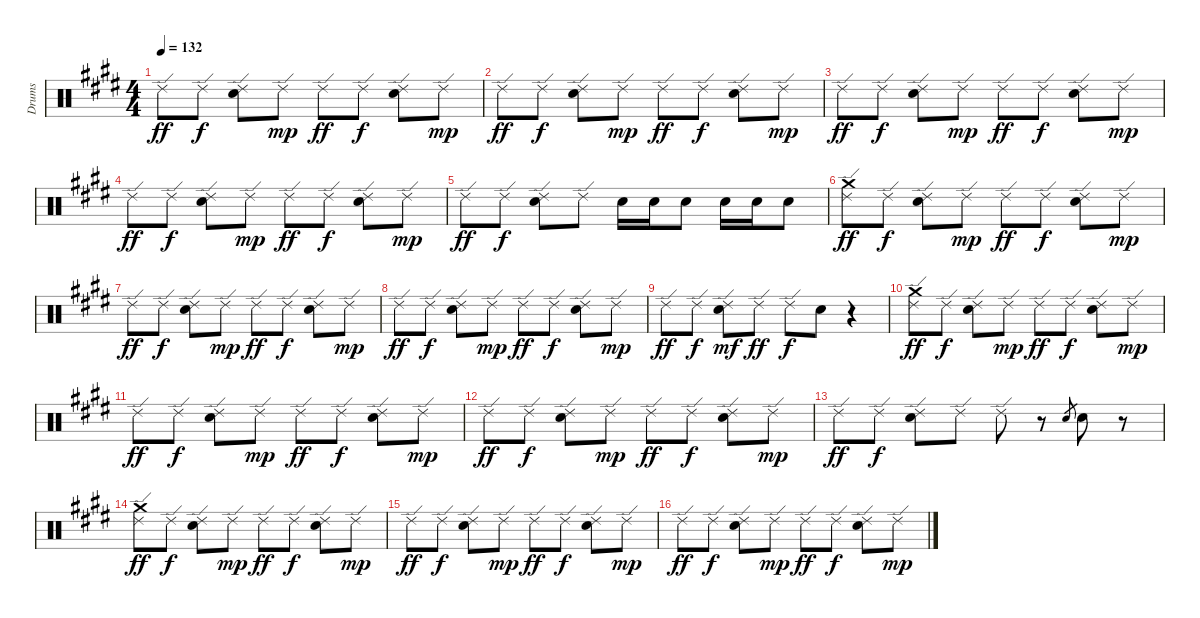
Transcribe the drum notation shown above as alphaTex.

\track ("Drums" "Drums") {instrument percussion}
\staff {score}
\articulation defaults
\ts (4 4)
\tempo 132
\clef neutral
\ks e "Ride (edge) 2".8{dy ff} "Ride (edge) 2".8{dy f}
("Electric Snare (hit)" "Ride (edge) 2").8 "Ride (edge) 2".8{dy mp} "Ride (edge) 2".8{dy ff} "Ride (edge) 2".8{dy f} ("Electric Snare (hit)" "Ride (edge) 2").8 "Ride (edge) 2".8{dy mp} |
"Ride (edge) 2".8{dy ff} "Ride (edge) 2".8{dy f} ("Electric Snare (hit)" "Ride (edge) 2").8 "Ride (edge) 2".8{dy mp} "Ride (edge) 2".8{dy ff} "Ride (edge) 2".8{dy f} ("Electric Snare (hit)" "Ride (edge) 2").8 "Ride (edge) 2".8{dy mp} |
"Ride (edge) 2".8{dy ff} "Ride (edge) 2".8{dy f} ("Electric Snare (hit)" "Ride (edge) 2").8 "Ride (edge) 2".8{dy mp} "Ride (edge) 2".8{dy ff} "Ride (edge) 2".8{dy f} ("Electric Snare (hit)" "Ride (edge) 2").8 "Ride (edge) 2".8{dy mp} |
"Ride (edge) 2".8{dy ff} "Ride (edge) 2".8{dy f} ("Electric Snare (hit)" "Ride (edge) 2").8 "Ride (edge) 2".8{dy mp} "Ride (edge) 2".8{dy ff} "Ride (edge) 2".8{dy f} ("Electric Snare (hit)" "Ride (edge) 2").8 "Ride (edge) 2".8{dy mp} |
"Ride (edge) 2".8{dy ff} "Ride (edge) 2".8{dy f} ("Electric Snare (hit)" "Ride (edge) 2").8 "Ride (edge) 2".8 "Electric Snare (hit)".16 "Electric Snare (hit)".16 "Electric Snare (hit)".8 "Electric Snare (hit)".16 "Electric Snare (hit)".16 "Electric Snare (hit)".8 |
("Crash medium (hit)" "Ride (edge) 2").8{dy ff} "Ride (edge) 2".8{dy f} ("Electric Snare (hit)" "Ride (edge) 2").8 "Ride (edge) 2".8{dy mp} "Ride (edge) 2".8{dy ff} "Ride (edge) 2".8{dy f} ("Electric Snare (hit)" "Ride (edge) 2").8 "Ride (edge) 2".8{dy mp} |
"Ride (edge) 2".8{dy ff} "Ride (edge) 2".8{dy f} ("Electric Snare (hit)" "Ride (edge) 2").8 "Ride (edge) 2".8{dy mp} "Ride (edge) 2".8{dy ff} "Ride (edge) 2".8{dy f} ("Electric Snare (hit)" "Ride (edge) 2").8 "Ride (edge) 2".8{dy mp} |
"Ride (edge) 2".8{dy ff} "Ride (edge) 2".8{dy f} ("Electric Snare (hit)" "Ride (edge) 2").8 "Ride (edge) 2".8{dy mp} "Ride (edge) 2".8{dy ff} "Ride (edge) 2".8{dy f} ("Electric Snare (hit)" "Ride (edge) 2").8 "Ride (edge) 2".8{dy mp} |
"Ride (edge) 2".8{dy ff} "Ride (edge) 2".8{dy f} ("Electric Snare (hit)" "Ride (edge) 2").8{dy mf} "Ride (edge) 2".8{dy ff} "Ride (edge) 2".8{dy f} "Electric Snare (hit)".8 r.4 |
("Crash medium (hit)" "Ride (edge) 2").8{dy ff} "Ride (edge) 2".8{dy f} ("Electric Snare (hit)" "Ride (edge) 2").8 "Ride (edge) 2".8{dy mp} "Ride (edge) 2".8{dy ff} "Ride (edge) 2".8{dy f} ("Electric Snare (hit)" "Ride (edge) 2").8 "Ride (edge) 2".8{dy mp} |
"Ride (edge) 2".8{dy ff} "Ride (edge) 2".8{dy f} ("Electric Snare (hit)" "Ride (edge) 2").8 "Ride (edge) 2".8{dy mp} "Ride (edge) 2".8{dy ff} "Ride (edge) 2".8{dy f} ("Electric Snare (hit)" "Ride (edge) 2").8 "Ride (edge) 2".8{dy mp} |
"Ride (edge) 2".8{dy ff} "Ride (edge) 2".8{dy f} ("Electric Snare (hit)" "Ride (edge) 2").8 "Ride (edge) 2".8{dy mp} "Ride (edge) 2".8{dy ff} "Ride (edge) 2".8{dy f} ("Electric Snare (hit)" "Ride (edge) 2").8 "Ride (edge) 2".8{dy mp} |
"Ride (edge) 2".8{dy ff} "Ride (edge) 2".8{dy f} ("Electric Snare (hit)" "Ride (edge) 2").8 "Ride (edge) 2".8 "Ride (edge) 2".8 r.8 "Electric Snare (hit)".8{gr} "Electric Snare (hit)".8 r.8 |
("Crash medium (hit)" "Ride (edge) 2").8{dy ff} "Ride (edge) 2".8{dy f} ("Electric Snare (hit)" "Ride (edge) 2").8 "Ride (edge) 2".8{dy mp} "Ride (edge) 2".8{dy ff} "Ride (edge) 2".8{dy f} ("Electric Snare (hit)" "Ride (edge) 2").8 "Ride (edge) 2".8{dy mp} |
"Ride (edge) 2".8{dy ff} "Ride (edge) 2".8{dy f} ("Electric Snare (hit)" "Ride (edge) 2").8 "Ride (edge) 2".8{dy mp} "Ride (edge) 2".8{dy ff} "Ride (edge) 2".8{dy f} ("Electric Snare (hit)" "Ride (edge) 2").8 "Ride (edge) 2".8{dy mp} |
"Ride (edge) 2".8{dy ff} "Ride (edge) 2".8{dy f} ("Electric Snare (hit)" "Ride (edge) 2").8 "Ride (edge) 2".8{dy mp} "Ride (edge) 2".8{dy ff} "Ride (edge) 2".8{dy f} ("Electric Snare (hit)" "Ride (edge) 2").8 "Ride (edge) 2".8{dy mp}
